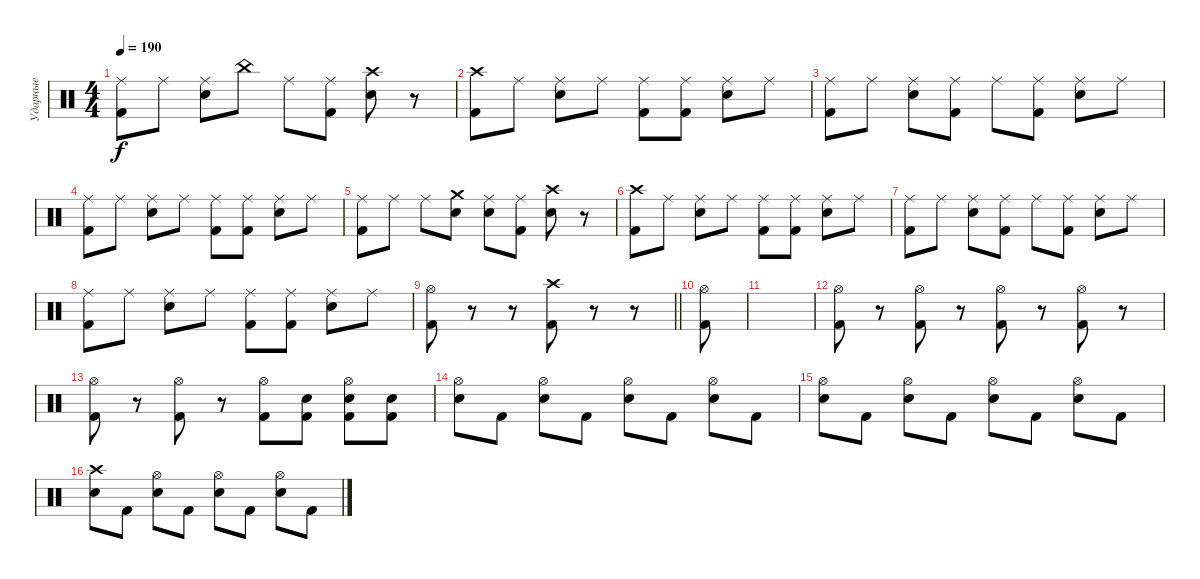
\track ("Ударные" "Ударные") {instrument percussion}
\staff {score}
\articulation defaults
\ts (4 4)
\tempo 190
\clef neutral
\ks c
("Ride (middle)" "Kick (hit) 2").8{dy f} "Ride (middle)".8 ("Ride (middle)" "Electric Snare (hit)").8 "China (hit)".8 "Ride (middle)".8 ("Ride (middle)" "Kick (hit) 2").8 ("Crash high (hit)" "Electric Snare (hit)").8 r.8 |
("Crash high (hit)" "Kick (hit) 2").8 "Ride (middle)".8 ("Ride (middle)" "Electric Snare (hit)").8 "Ride (middle)".8 ("Ride (middle)" "Kick (hit) 2").8 ("Ride (middle)" "Kick (hit) 2").8 ("Ride (middle)" "Electric Snare (hit)").8 "Ride (middle)".8 |
("Ride (middle)" "Kick (hit) 2").8 "Ride (middle)".8 ("Ride (middle)" "Electric Snare (hit)").8 ("Ride (middle)" "Kick (hit) 2").8 "Ride (middle)".8 ("Ride (middle)" "Kick (hit) 2").8 ("Ride (middle)" "Electric Snare (hit)").8 "Ride (middle)".8 |
("Ride (middle)" "Kick (hit) 2").8 "Ride (middle)".8 ("Ride (middle)" "Electric Snare (hit)").8 "Ride (middle)".8 ("Ride (middle)" "Kick (hit) 2").8 ("Ride (middle)" "Kick (hit) 2").8 ("Ride (middle)" "Electric Snare (hit)").8 "Ride (middle)".8 |
("Ride (middle)" "Kick (hit) 2").8 "Ride (middle)".8 "Ride (middle)".8 ("Crash medium (hit)" "Electric Snare (hit)").8 ("Ride (middle)" "Electric Snare (hit)").8 ("Ride (middle)" "Kick (hit) 2").8 ("Crash high (hit)" "Electric Snare (hit)").8 r.8 |
("Crash high (hit)" "Kick (hit) 2").8 "Ride (middle)".8 ("Ride (middle)" "Electric Snare (hit)").8 "Ride (middle)".8 ("Ride (middle)" "Kick (hit) 2").8 ("Ride (middle)" "Kick (hit) 2").8 ("Ride (middle)" "Electric Snare (hit)").8 "Ride (middle)".8 |
("Ride (middle)" "Kick (hit) 2").8 "Ride (middle)".8 ("Ride (middle)" "Electric Snare (hit)").8 ("Ride (middle)" "Kick (hit) 2").8 "Ride (middle)".8 ("Ride (middle)" "Kick (hit) 2").8 ("Ride (middle)" "Electric Snare (hit)").8 "Ride (middle)".8 |
("Ride (middle)" "Kick (hit) 2").8 "Ride (middle)".8 ("Ride (middle)" "Electric Snare (hit)").8 "Ride (middle)".8 ("Ride (middle)" "Kick (hit) 2").8 ("Ride (middle)" "Kick (hit) 2").8 ("Ride (middle)" "Electric Snare (hit)").8 "Ride (middle)".8 |
\barLineRight lightlight
("Hi-Hat (open)" "Kick (hit) 2").8 r.8 r.8 ("Crash high (hit)" "Kick (hit) 2").8 r.8 r.8 |
("Hi-Hat (open)" "Kick (hit) 2").8 |
|
("Hi-Hat (open)" "Kick (hit) 2").8 r.8 ("Hi-Hat (open)" "Kick (hit) 2").8 r.8 ("Hi-Hat (open)" "Kick (hit) 2").8 r.8 ("Hi-Hat (open)" "Kick (hit) 2").8 r.8 |
("Hi-Hat (open)" "Kick (hit) 2").8 r.8 ("Hi-Hat (open)" "Kick (hit) 2").8 r.8 ("Hi-Hat (open)" "Kick (hit) 2").8 ("Kick (hit) 2" "Electric Snare (hit)").8 ("Hi-Hat (open)" "Kick (hit) 2" "Electric Snare (hit)").8 ("Kick (hit) 2" "Electric Snare (hit)").8 |
("Hi-Hat (open)" "Electric Snare (hit)").8 "Kick (hit) 2".8 ("Hi-Hat (open)" "Electric Snare (hit)").8 "Kick (hit) 2".8 ("Hi-Hat (open)" "Electric Snare (hit)").8 "Kick (hit) 2".8 ("Hi-Hat (open)" "Electric Snare (hit)").8 "Kick (hit) 2".8 |
("Hi-Hat (open)" "Electric Snare (hit)").8 "Kick (hit) 2".8 ("Hi-Hat (open)" "Electric Snare (hit)").8 "Kick (hit) 2".8 ("Hi-Hat (open)" "Electric Snare (hit)").8 "Kick (hit) 2".8 ("Hi-Hat (open)" "Electric Snare (hit)").8 "Kick (hit) 2".8 |
("Crash high (hit)" "Electric Snare (hit)").8 "Kick (hit) 2".8 ("Hi-Hat (open)" "Electric Snare (hit)").8 "Kick (hit) 2".8 ("Hi-Hat (open)" "Electric Snare (hit)").8 "Kick (hit) 2".8 ("Hi-Hat (open)" "Electric Snare (hit)").8 "Kick (hit) 2".8
